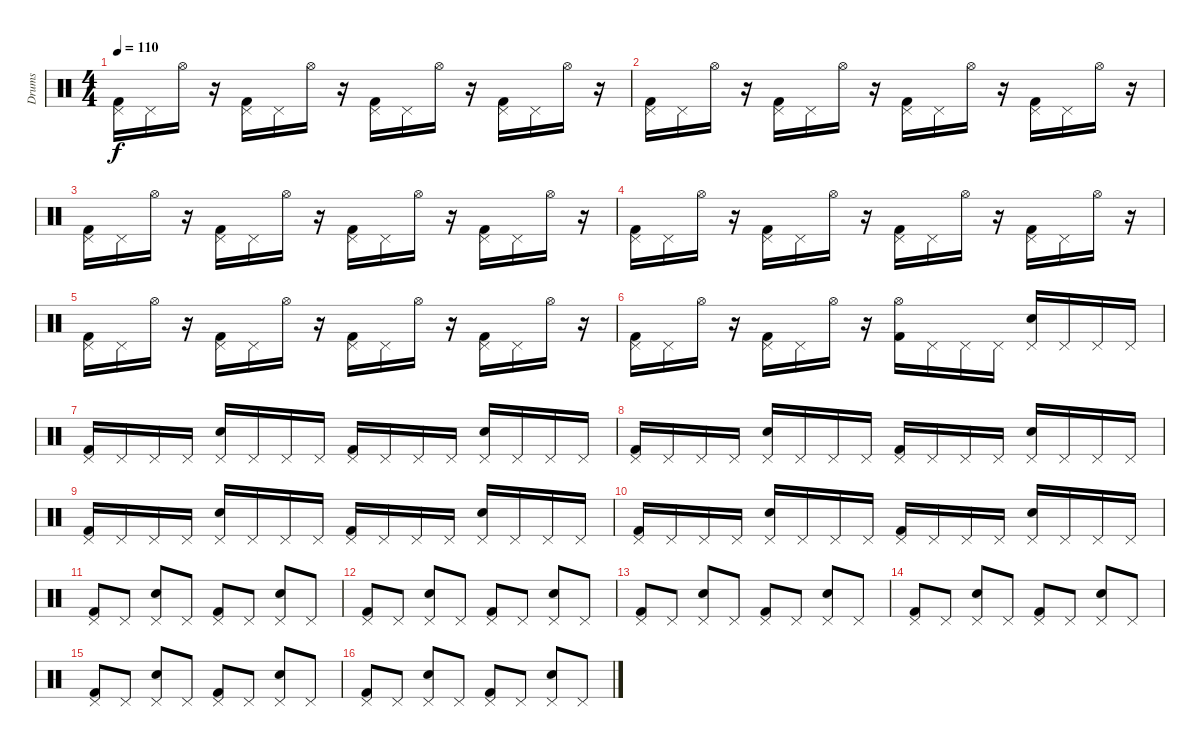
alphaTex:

\track ("Drums" "Drums") {instrument percussion}
\staff {score}
\articulation defaults
\ts (4 4)
\tempo 110
\clef neutral
\ks c
("Kick (hit) 2" "Pedal Hi-Hat (hit)").16{dy f} "Pedal Hi-Hat (hit)".16 "Hi-Hat (open)".16 r.16 ("Kick (hit) 2" "Pedal Hi-Hat (hit)").16 "Pedal Hi-Hat (hit)".16 "Hi-Hat (open)".16 r.16 ("Kick (hit) 2" "Pedal Hi-Hat (hit)").16 "Pedal Hi-Hat (hit)".16 "Hi-Hat (open)".16 r.16 ("Kick (hit) 2" "Pedal Hi-Hat (hit)").16 "Pedal Hi-Hat (hit)".16 "Hi-Hat (open)".16 r.16 |
("Kick (hit) 2" "Pedal Hi-Hat (hit)").16 "Pedal Hi-Hat (hit)".16 "Hi-Hat (open)".16 r.16 ("Kick (hit) 2" "Pedal Hi-Hat (hit)").16 "Pedal Hi-Hat (hit)".16 "Hi-Hat (open)".16 r.16 ("Kick (hit) 2" "Pedal Hi-Hat (hit)").16 "Pedal Hi-Hat (hit)".16 "Hi-Hat (open)".16 r.16 ("Kick (hit) 2" "Pedal Hi-Hat (hit)").16 "Pedal Hi-Hat (hit)".16 "Hi-Hat (open)".16 r.16 |
("Kick (hit) 2" "Pedal Hi-Hat (hit)").16 "Pedal Hi-Hat (hit)".16 "Hi-Hat (open)".16 r.16 ("Kick (hit) 2" "Pedal Hi-Hat (hit)").16 "Pedal Hi-Hat (hit)".16 "Hi-Hat (open)".16 r.16 ("Kick (hit) 2" "Pedal Hi-Hat (hit)").16 "Pedal Hi-Hat (hit)".16 "Hi-Hat (open)".16 r.16 ("Kick (hit) 2" "Pedal Hi-Hat (hit)").16 "Pedal Hi-Hat (hit)".16 "Hi-Hat (open)".16 r.16 |
("Kick (hit) 2" "Pedal Hi-Hat (hit)").16 "Pedal Hi-Hat (hit)".16 "Hi-Hat (open)".16 r.16 ("Kick (hit) 2" "Pedal Hi-Hat (hit)").16 "Pedal Hi-Hat (hit)".16 "Hi-Hat (open)".16 r.16 ("Kick (hit) 2" "Pedal Hi-Hat (hit)").16 "Pedal Hi-Hat (hit)".16 "Hi-Hat (open)".16 r.16 ("Kick (hit) 2" "Pedal Hi-Hat (hit)").16 "Pedal Hi-Hat (hit)".16 "Hi-Hat (open)".16 r.16 |
("Kick (hit) 2" "Pedal Hi-Hat (hit)").16 "Pedal Hi-Hat (hit)".16 "Hi-Hat (open)".16 r.16 ("Kick (hit) 2" "Pedal Hi-Hat (hit)").16 "Pedal Hi-Hat (hit)".16 "Hi-Hat (open)".16 r.16 ("Kick (hit) 2" "Pedal Hi-Hat (hit)").16 "Pedal Hi-Hat (hit)".16 "Hi-Hat (open)".16 r.16 ("Kick (hit) 2" "Pedal Hi-Hat (hit)").16 "Pedal Hi-Hat (hit)".16 "Hi-Hat (open)".16 r.16 |
("Kick (hit) 2" "Pedal Hi-Hat (hit)").16 "Pedal Hi-Hat (hit)".16 "Hi-Hat (open)".16 r.16 ("Kick (hit) 2" "Pedal Hi-Hat (hit)").16 "Pedal Hi-Hat (hit)".16 "Hi-Hat (open)".16 r.16 ("Kick (hit) 2" "Hi-Hat (open)").16 "Pedal Hi-Hat (hit)".16 "Pedal Hi-Hat (hit)".16 "Pedal Hi-Hat (hit)".16 ("Electric Snare (hit)" "Pedal Hi-Hat (hit)").16 "Pedal Hi-Hat (hit)".16 "Pedal Hi-Hat (hit)".16 "Pedal Hi-Hat (hit)".16 |
("Kick (hit) 2" "Pedal Hi-Hat (hit)").16 "Pedal Hi-Hat (hit)".16 "Pedal Hi-Hat (hit)".16 "Pedal Hi-Hat (hit)".16 ("Electric Snare (hit)" "Pedal Hi-Hat (hit)").16 "Pedal Hi-Hat (hit)".16 "Pedal Hi-Hat (hit)".16 "Pedal Hi-Hat (hit)".16 ("Kick (hit) 2" "Pedal Hi-Hat (hit)").16 "Pedal Hi-Hat (hit)".16 "Pedal Hi-Hat (hit)".16 "Pedal Hi-Hat (hit)".16 ("Electric Snare (hit)" "Pedal Hi-Hat (hit)").16 "Pedal Hi-Hat (hit)".16 "Pedal Hi-Hat (hit)".16 "Pedal Hi-Hat (hit)".16 |
("Kick (hit) 2" "Pedal Hi-Hat (hit)").16 "Pedal Hi-Hat (hit)".16 "Pedal Hi-Hat (hit)".16 "Pedal Hi-Hat (hit)".16 ("Electric Snare (hit)" "Pedal Hi-Hat (hit)").16 "Pedal Hi-Hat (hit)".16 "Pedal Hi-Hat (hit)".16 "Pedal Hi-Hat (hit)".16 ("Kick (hit) 2" "Pedal Hi-Hat (hit)").16 "Pedal Hi-Hat (hit)".16 "Pedal Hi-Hat (hit)".16 "Pedal Hi-Hat (hit)".16 ("Electric Snare (hit)" "Pedal Hi-Hat (hit)").16 "Pedal Hi-Hat (hit)".16 "Pedal Hi-Hat (hit)".16 "Pedal Hi-Hat (hit)".16 |
("Kick (hit) 2" "Pedal Hi-Hat (hit)").16 "Pedal Hi-Hat (hit)".16 "Pedal Hi-Hat (hit)".16 "Pedal Hi-Hat (hit)".16 ("Electric Snare (hit)" "Pedal Hi-Hat (hit)").16 "Pedal Hi-Hat (hit)".16 "Pedal Hi-Hat (hit)".16 "Pedal Hi-Hat (hit)".16 ("Kick (hit) 2" "Pedal Hi-Hat (hit)").16 "Pedal Hi-Hat (hit)".16 "Pedal Hi-Hat (hit)".16 "Pedal Hi-Hat (hit)".16 ("Electric Snare (hit)" "Pedal Hi-Hat (hit)").16 "Pedal Hi-Hat (hit)".16 "Pedal Hi-Hat (hit)".16 "Pedal Hi-Hat (hit)".16 |
("Kick (hit) 2" "Pedal Hi-Hat (hit)").16 "Pedal Hi-Hat (hit)".16 "Pedal Hi-Hat (hit)".16 "Pedal Hi-Hat (hit)".16 ("Electric Snare (hit)" "Pedal Hi-Hat (hit)").16 "Pedal Hi-Hat (hit)".16 "Pedal Hi-Hat (hit)".16 "Pedal Hi-Hat (hit)".16 ("Kick (hit) 2" "Pedal Hi-Hat (hit)").16 "Pedal Hi-Hat (hit)".16 "Pedal Hi-Hat (hit)".16 "Pedal Hi-Hat (hit)".16 ("Electric Snare (hit)" "Pedal Hi-Hat (hit)").16 "Pedal Hi-Hat (hit)".16 "Pedal Hi-Hat (hit)".16 "Pedal Hi-Hat (hit)".16 |
("Pedal Hi-Hat (hit)" "Kick (hit) 2").8 "Pedal Hi-Hat (hit)".8 ("Pedal Hi-Hat (hit)" "Electric Snare (hit)").8 "Pedal Hi-Hat (hit)".8 ("Pedal Hi-Hat (hit)" "Kick (hit) 2").8 "Pedal Hi-Hat (hit)".8 ("Pedal Hi-Hat (hit)" "Electric Snare (hit)").8 "Pedal Hi-Hat (hit)".8 |
("Pedal Hi-Hat (hit)" "Kick (hit) 2").8 "Pedal Hi-Hat (hit)".8 ("Pedal Hi-Hat (hit)" "Electric Snare (hit)").8 "Pedal Hi-Hat (hit)".8 ("Pedal Hi-Hat (hit)" "Kick (hit) 2").8 "Pedal Hi-Hat (hit)".8 ("Pedal Hi-Hat (hit)" "Electric Snare (hit)").8 "Pedal Hi-Hat (hit)".8 |
("Pedal Hi-Hat (hit)" "Kick (hit) 2").8 "Pedal Hi-Hat (hit)".8 ("Pedal Hi-Hat (hit)" "Electric Snare (hit)").8 "Pedal Hi-Hat (hit)".8 ("Pedal Hi-Hat (hit)" "Kick (hit) 2").8 "Pedal Hi-Hat (hit)".8 ("Pedal Hi-Hat (hit)" "Electric Snare (hit)").8 "Pedal Hi-Hat (hit)".8 |
("Pedal Hi-Hat (hit)" "Kick (hit) 2").8 "Pedal Hi-Hat (hit)".8 ("Pedal Hi-Hat (hit)" "Electric Snare (hit)").8 "Pedal Hi-Hat (hit)".8 ("Pedal Hi-Hat (hit)" "Kick (hit) 2").8 "Pedal Hi-Hat (hit)".8 ("Pedal Hi-Hat (hit)" "Electric Snare (hit)").8 "Pedal Hi-Hat (hit)".8 |
("Pedal Hi-Hat (hit)" "Kick (hit) 2").8 "Pedal Hi-Hat (hit)".8 ("Pedal Hi-Hat (hit)" "Electric Snare (hit)").8 "Pedal Hi-Hat (hit)".8 ("Pedal Hi-Hat (hit)" "Kick (hit) 2").8 "Pedal Hi-Hat (hit)".8 ("Pedal Hi-Hat (hit)" "Electric Snare (hit)").8 "Pedal Hi-Hat (hit)".8 |
("Pedal Hi-Hat (hit)" "Kick (hit) 2").8 "Pedal Hi-Hat (hit)".8 ("Pedal Hi-Hat (hit)" "Electric Snare (hit)").8 "Pedal Hi-Hat (hit)".8 ("Pedal Hi-Hat (hit)" "Kick (hit) 2").8 "Pedal Hi-Hat (hit)".8 ("Pedal Hi-Hat (hit)" "Electric Snare (hit)").8 "Pedal Hi-Hat (hit)".8
